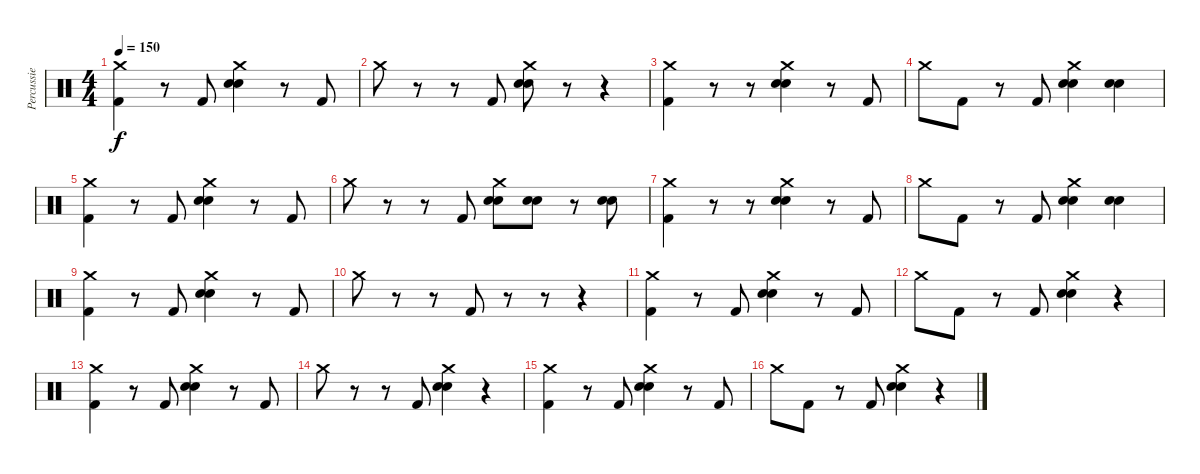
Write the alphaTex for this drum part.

\track ("Percussie" "Percussie") {instrument percussion}
\staff {score}
\articulation defaults
\ts (4 4)
\tempo 150
\clef neutral
\ks c
("Crash medium (hit)" "Kick (hit) 2").4{dy f} r.8 "Kick (hit) 2".8 ("Crash medium (hit)" "Electric Snare (hit)" "Snare (hit) 2").4 r.8 "Kick (hit) 2".8 |
"Crash medium (hit)".8 r.8 r.8 "Kick (hit) 2".8 ("Crash medium (hit)" "Electric Snare (hit)" "Snare (hit) 2").8 r.8 r.4 |
("Crash medium (hit)" "Kick (hit) 2").4 r.8 r.8 ("Crash medium (hit)" "Electric Snare (hit)" "Snare (hit) 2").4 r.8 "Kick (hit) 2".8 |
"Crash medium (hit)".8 "Kick (hit) 2".8 r.8 "Kick (hit) 2".8 ("Crash medium (hit)" "Electric Snare (hit)" "Snare (hit) 2").4 ("Electric Snare (hit)" "Snare (hit) 2").4 |
("Crash medium (hit)" "Kick (hit) 2").4 r.8 "Kick (hit) 2".8 ("Crash medium (hit)" "Electric Snare (hit)" "Snare (hit) 2").4 r.8 "Kick (hit) 2".8 |
"Crash medium (hit)".8 r.8 r.8 "Kick (hit) 2".8 ("Crash medium (hit)" "Electric Snare (hit)" "Snare (hit) 2").8 ("Electric Snare (hit)" "Snare (hit) 2").8 r.8 ("Electric Snare (hit)" "Snare (hit) 2").8 |
("Crash medium (hit)" "Kick (hit) 2").4 r.8 r.8 ("Crash medium (hit)" "Electric Snare (hit)" "Snare (hit) 2").4 r.8 "Kick (hit) 2".8 |
"Crash medium (hit)".8 "Kick (hit) 2".8 r.8 "Kick (hit) 2".8 ("Crash medium (hit)" "Electric Snare (hit)" "Snare (hit) 2").4 ("Electric Snare (hit)" "Snare (hit) 2").4 |
("Crash medium (hit)" "Kick (hit) 2").4 r.8 "Kick (hit) 2".8 ("Crash medium (hit)" "Electric Snare (hit)" "Snare (hit) 2").4 r.8 "Kick (hit) 2".8 |
"Crash medium (hit)".8 r.8 r.8 "Kick (hit) 2".8 r.8 r.8 r.4 |
("Crash medium (hit)" "Kick (hit) 2").4 r.8 "Kick (hit) 2".8 ("Crash medium (hit)" "Electric Snare (hit)" "Snare (hit) 2").4 r.8 "Kick (hit) 2".8 |
"Crash medium (hit)".8 "Kick (hit) 2".8 r.8 "Kick (hit) 2".8 ("Crash medium (hit)" "Electric Snare (hit)" "Snare (hit) 2").4 r.4 |
("Crash medium (hit)" "Kick (hit) 2").4 r.8 "Kick (hit) 2".8 ("Crash medium (hit)" "Electric Snare (hit)" "Snare (hit) 2").4 r.8 "Kick (hit) 2".8 |
"Crash medium (hit)".8 r.8 r.8 "Kick (hit) 2".8 ("Crash medium (hit)" "Electric Snare (hit)" "Snare (hit) 2").4 r.4 |
("Crash medium (hit)" "Kick (hit) 2").4 r.8 "Kick (hit) 2".8 ("Crash medium (hit)" "Electric Snare (hit)" "Snare (hit) 2").4 r.8 "Kick (hit) 2".8 |
"Crash medium (hit)".8 "Kick (hit) 2".8 r.8 "Kick (hit) 2".8 ("Crash medium (hit)" "Electric Snare (hit)" "Snare (hit) 2").4 r.4
